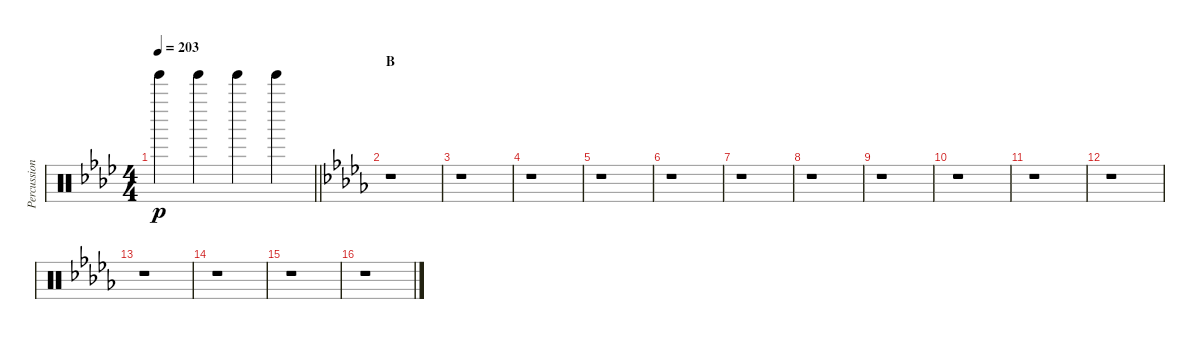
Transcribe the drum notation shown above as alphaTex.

\track ("Percussion" "Percussion") {instrument percussion}
\staff {score}
\articulation defaults
\ts (4 4)
\tempo 203
\clef neutral
\barLineRight lightlight
\ks ab "Tinkle Bell (hit)".4{dy p} "Tinkle Bell (hit)".4 "Tinkle Bell (hit)".4 "Tinkle Bell (hit)".4
|
\section ("" "B")
\ks db
r.1 |
r.1 |
r.1 |
r.1 |
r.1 |
r.1 |
r.1 |
r.1 |
r.1 |
r.1 |
r.1 |
r.1 |
r.1 |
r.1 |
r.1
